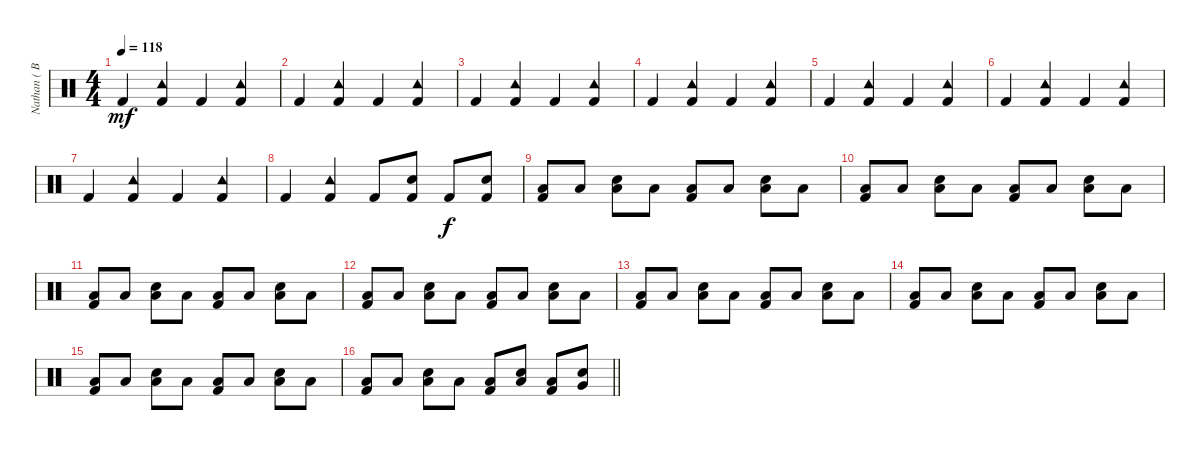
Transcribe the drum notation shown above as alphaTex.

\track ("Nathan ( Bateria )" "Nathan ( B") {instrument percussion}
\staff {score}
\articulation defaults
\ts (4 4)
\tempo 118
\clef neutral
\ks c "Kick (hit) 2".4{dy mf}
("Tambourine (hit)" "Kick (hit) 2").4 "Kick (hit) 2".4 ("Tambourine (hit)" "Kick (hit) 2").4 |
"Kick (hit) 2".4 ("Tambourine (hit)" "Kick (hit) 2").4 "Kick (hit) 2".4 ("Tambourine (hit)" "Kick (hit) 2").4 |
"Kick (hit) 2".4 ("Tambourine (hit)" "Kick (hit) 2").4 "Kick (hit) 2".4 ("Tambourine (hit)" "Kick (hit) 2").4 |
"Kick (hit) 2".4 ("Tambourine (hit)" "Kick (hit) 2").4 "Kick (hit) 2".4 ("Tambourine (hit)" "Kick (hit) 2").4 |
"Kick (hit) 2".4 ("Tambourine (hit)" "Kick (hit) 2").4 "Kick (hit) 2".4 ("Tambourine (hit)" "Kick (hit) 2").4 |
"Kick (hit) 2".4 ("Tambourine (hit)" "Kick (hit) 2").4 "Kick (hit) 2".4 ("Tambourine (hit)" "Kick (hit) 2").4 |
"Kick (hit) 2".4 ("Tambourine (hit)" "Kick (hit) 2").4 "Kick (hit) 2".4 ("Tambourine (hit)" "Kick (hit) 2").4 |
"Kick (hit) 2".4 ("Tambourine (hit)" "Kick (hit) 2").4 "Kick (hit) 2".8 ("Electric Snare (hit)" "Kick (hit) 2").8 "Kick (hit) 2".8{dy f} ("Electric Snare (hit)" "Kick (hit) 2").8 |
("Low Floor Tom (hit)" "Kick (hit) 2").8 "Low Floor Tom (hit)".8 ("Low Floor Tom (hit)" "Electric Snare (hit)").8 "Low Floor Tom (hit)".8 ("Low Floor Tom (hit)" "Kick (hit) 2").8 "Low Floor Tom (hit)".8 ("Low Floor Tom (hit)" "Electric Snare (hit)").8 "Low Floor Tom (hit)".8 |
("Low Floor Tom (hit)" "Kick (hit) 2").8 "Low Floor Tom (hit)".8 ("Low Floor Tom (hit)" "Electric Snare (hit)").8 "Low Floor Tom (hit)".8 ("Low Floor Tom (hit)" "Kick (hit) 2").8 "Low Floor Tom (hit)".8 ("Low Floor Tom (hit)" "Electric Snare (hit)").8 "Low Floor Tom (hit)".8 |
("Low Floor Tom (hit)" "Kick (hit) 2").8 "Low Floor Tom (hit)".8 ("Low Floor Tom (hit)" "Electric Snare (hit)").8 "Low Floor Tom (hit)".8 ("Low Floor Tom (hit)" "Kick (hit) 2").8 "Low Floor Tom (hit)".8 ("Low Floor Tom (hit)" "Electric Snare (hit)").8 "Low Floor Tom (hit)".8 |
("Low Floor Tom (hit)" "Kick (hit) 2").8 "Low Floor Tom (hit)".8 ("Low Floor Tom (hit)" "Electric Snare (hit)").8 "Low Floor Tom (hit)".8 ("Low Floor Tom (hit)" "Kick (hit) 2").8 "Low Floor Tom (hit)".8 ("Low Floor Tom (hit)" "Electric Snare (hit)").8 "Low Floor Tom (hit)".8 |
("Low Floor Tom (hit)" "Kick (hit) 2").8 "Low Floor Tom (hit)".8 ("Low Floor Tom (hit)" "Electric Snare (hit)").8 "Low Floor Tom (hit)".8 ("Low Floor Tom (hit)" "Kick (hit) 2").8 "Low Floor Tom (hit)".8 ("Low Floor Tom (hit)" "Electric Snare (hit)").8 "Low Floor Tom (hit)".8 |
("Low Floor Tom (hit)" "Kick (hit) 2").8 "Low Floor Tom (hit)".8 ("Low Floor Tom (hit)" "Electric Snare (hit)").8 "Low Floor Tom (hit)".8 ("Low Floor Tom (hit)" "Kick (hit) 2").8 "Low Floor Tom (hit)".8 ("Low Floor Tom (hit)" "Electric Snare (hit)").8 "Low Floor Tom (hit)".8 |
("Low Floor Tom (hit)" "Kick (hit) 2").8 "Low Floor Tom (hit)".8 ("Low Floor Tom (hit)" "Electric Snare (hit)").8 "Low Floor Tom (hit)".8 ("Low Floor Tom (hit)" "Kick (hit) 2").8 "Low Floor Tom (hit)".8 ("Low Floor Tom (hit)" "Electric Snare (hit)").8 "Low Floor Tom (hit)".8 |
\barLineRight lightlight
("Low Floor Tom (hit)" "Kick (hit) 2").8 "Low Floor Tom (hit)".8 ("Low Floor Tom (hit)" "Electric Snare (hit)").8 "Low Floor Tom (hit)".8 ("Low Floor Tom (hit)" "Kick (hit) 2").8 ("Electric Snare (hit)" "Low Tom (hit)").8 ("Low Floor Tom (hit)" "Kick (hit) 2").8 ("Electric Snare (hit)" "Very Low Tom (hit)").8
